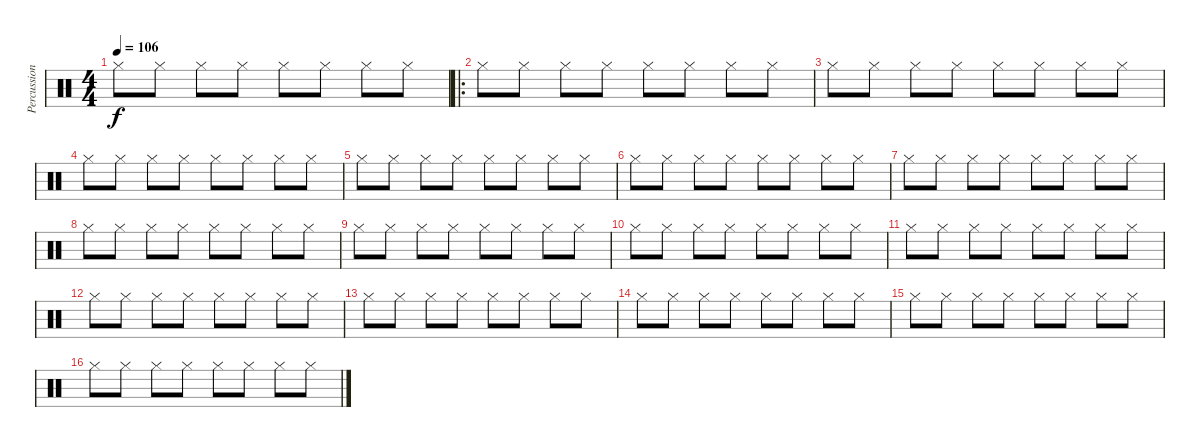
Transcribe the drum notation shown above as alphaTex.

\track ("Percussions" "Percussion") {instrument percussion}
\staff {score}
\articulation defaults
\ts (4 4)
\tempo 106
\clef neutral
\ks c "Hi-Hat (closed)".8{dy f} "Hi-Hat (closed)".8 "Hi-Hat (closed)".8 "Hi-Hat (closed)".8 "Hi-Hat (closed)".8 "Hi-Hat (closed)".8 "Hi-Hat (closed)".8 "Hi-Hat (closed)".8
|
\ro "Hi-Hat (closed)".8 "Hi-Hat (closed)".8 "Hi-Hat (closed)".8 "Hi-Hat (closed)".8 "Hi-Hat (closed)".8 "Hi-Hat (closed)".8 "Hi-Hat (closed)".8 "Hi-Hat (closed)".8
|
"Hi-Hat (closed)".8 "Hi-Hat (closed)".8 "Hi-Hat (closed)".8 "Hi-Hat (closed)".8 "Hi-Hat (closed)".8 "Hi-Hat (closed)".8 "Hi-Hat (closed)".8 "Hi-Hat (closed)".8 |
"Hi-Hat (closed)".8 "Hi-Hat (closed)".8 "Hi-Hat (closed)".8 "Hi-Hat (closed)".8 "Hi-Hat (closed)".8 "Hi-Hat (closed)".8 "Hi-Hat (closed)".8 "Hi-Hat (closed)".8 |
"Hi-Hat (closed)".8 "Hi-Hat (closed)".8 "Hi-Hat (closed)".8 "Hi-Hat (closed)".8 "Hi-Hat (closed)".8 "Hi-Hat (closed)".8 "Hi-Hat (closed)".8 "Hi-Hat (closed)".8 |
"Hi-Hat (closed)".8 "Hi-Hat (closed)".8 "Hi-Hat (closed)".8 "Hi-Hat (closed)".8 "Hi-Hat (closed)".8 "Hi-Hat (closed)".8 "Hi-Hat (closed)".8 "Hi-Hat (closed)".8 |
"Hi-Hat (closed)".8 "Hi-Hat (closed)".8 "Hi-Hat (closed)".8 "Hi-Hat (closed)".8 "Hi-Hat (closed)".8 "Hi-Hat (closed)".8 "Hi-Hat (closed)".8 "Hi-Hat (closed)".8 |
"Hi-Hat (closed)".8 "Hi-Hat (closed)".8 "Hi-Hat (closed)".8 "Hi-Hat (closed)".8 "Hi-Hat (closed)".8 "Hi-Hat (closed)".8 "Hi-Hat (closed)".8 "Hi-Hat (closed)".8 |
"Hi-Hat (closed)".8 "Hi-Hat (closed)".8 "Hi-Hat (closed)".8 "Hi-Hat (closed)".8 "Hi-Hat (closed)".8 "Hi-Hat (closed)".8 "Hi-Hat (closed)".8 "Hi-Hat (closed)".8 |
"Hi-Hat (closed)".8 "Hi-Hat (closed)".8 "Hi-Hat (closed)".8 "Hi-Hat (closed)".8 "Hi-Hat (closed)".8 "Hi-Hat (closed)".8 "Hi-Hat (closed)".8 "Hi-Hat (closed)".8 |
"Hi-Hat (closed)".8 "Hi-Hat (closed)".8 "Hi-Hat (closed)".8 "Hi-Hat (closed)".8 "Hi-Hat (closed)".8 "Hi-Hat (closed)".8 "Hi-Hat (closed)".8 "Hi-Hat (closed)".8 |
"Hi-Hat (closed)".8 "Hi-Hat (closed)".8 "Hi-Hat (closed)".8 "Hi-Hat (closed)".8 "Hi-Hat (closed)".8 "Hi-Hat (closed)".8 "Hi-Hat (closed)".8 "Hi-Hat (closed)".8 |
"Hi-Hat (closed)".8 "Hi-Hat (closed)".8 "Hi-Hat (closed)".8 "Hi-Hat (closed)".8 "Hi-Hat (closed)".8 "Hi-Hat (closed)".8 "Hi-Hat (closed)".8 "Hi-Hat (closed)".8 |
"Hi-Hat (closed)".8 "Hi-Hat (closed)".8 "Hi-Hat (closed)".8 "Hi-Hat (closed)".8 "Hi-Hat (closed)".8 "Hi-Hat (closed)".8 "Hi-Hat (closed)".8 "Hi-Hat (closed)".8 |
"Hi-Hat (closed)".8 "Hi-Hat (closed)".8 "Hi-Hat (closed)".8 "Hi-Hat (closed)".8 "Hi-Hat (closed)".8 "Hi-Hat (closed)".8 "Hi-Hat (closed)".8 "Hi-Hat (closed)".8 |
"Hi-Hat (closed)".8 "Hi-Hat (closed)".8 "Hi-Hat (closed)".8 "Hi-Hat (closed)".8 "Hi-Hat (closed)".8 "Hi-Hat (closed)".8 "Hi-Hat (closed)".8 "Hi-Hat (closed)".8
